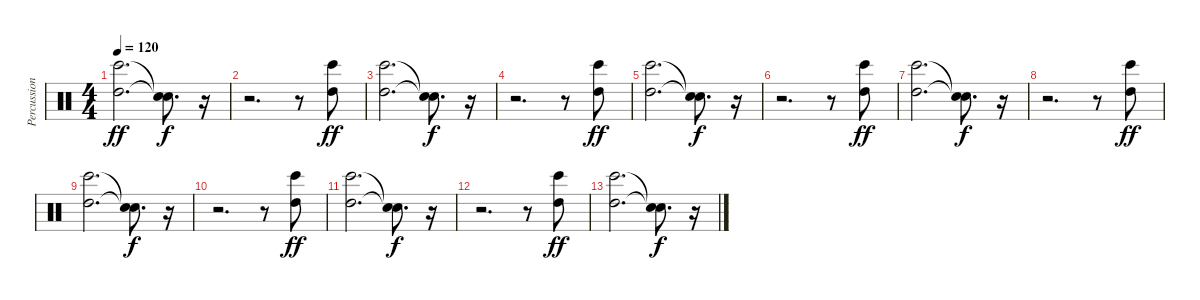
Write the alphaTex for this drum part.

\track ("Percussions2" "Percussion") {instrument percussion}
\staff {score}
\articulation defaults
\ts (4 4)
\tempo 120
\clef neutral
\ks c
("High Tom (hit)" "Bongo High (hit)").2{d dy ff} ("Snare (hit)"{t} "Snare (hit)"{t}).8{d dy f} r.16 |
r.2{d} r.8 ("High Tom (hit)" "Bongo High (hit)").8{dy ff} |
("High Tom (hit)" "Bongo High (hit)").2{d} ("Snare (hit)"{t} "Snare (hit)"{t}).8{d dy f} r.16 |
r.2{d} r.8 ("High Tom (hit)" "Bongo High (hit)").8{dy ff} |
("High Tom (hit)" "Bongo High (hit)").2{d} ("Snare (hit)"{t} "Snare (hit)"{t}).8{d dy f} r.16 |
r.2{d} r.8 ("High Tom (hit)" "Bongo High (hit)").8{dy ff} |
("High Tom (hit)" "Bongo High (hit)").2{d} ("Snare (hit)"{t} "Snare (hit)"{t}).8{d dy f} r.16 |
r.2{d} r.8 ("High Tom (hit)" "Bongo High (hit)").8{dy ff} |
("High Tom (hit)" "Bongo High (hit)").2{d} ("Snare (hit)"{t} "Snare (hit)"{t}).8{d dy f} r.16 |
r.2{d} r.8 ("High Tom (hit)" "Bongo High (hit)").8{dy ff} |
("High Tom (hit)" "Bongo High (hit)").2{d} ("Snare (hit)"{t} "Snare (hit)"{t}).8{d dy f} r.16 |
r.2{d} r.8 ("High Tom (hit)" "Bongo High (hit)").8{dy ff} |
("High Tom (hit)" "Bongo High (hit)").2{d} ("Snare (hit)"{t} "Snare (hit)"{t}).8{d dy f} r.16
